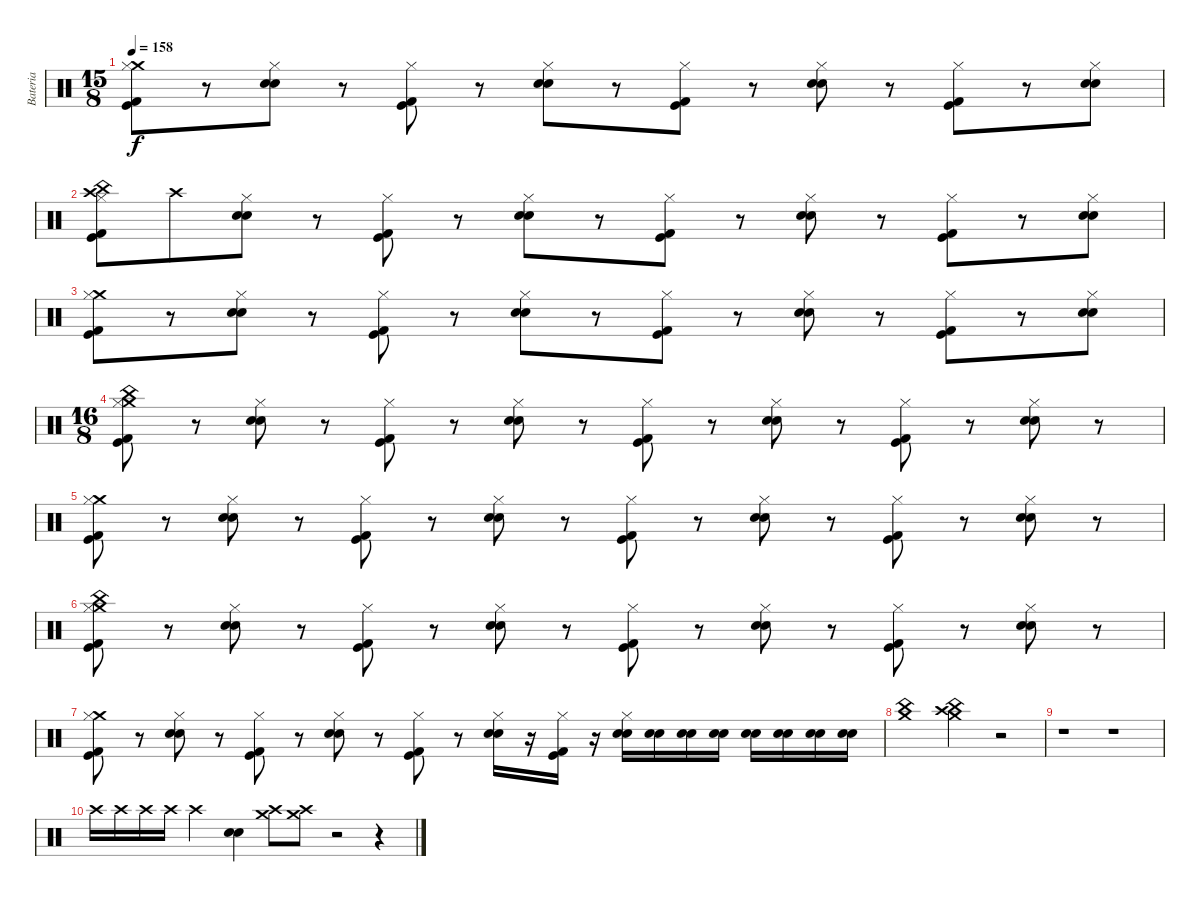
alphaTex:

\track ("Bateria" "Bateria") {instrument percussion}
\staff {score}
\articulation defaults
\ts (15 8)
\tempo 158
\clef neutral
\ks c
("Crash medium (hit)" "Hi-Hat (closed)" "Kick (hit) 2" "Kick (hit)").8{dy f} r.8 ("Hi-Hat (closed)" "Electric Snare (hit)" "Snare (hit) 2").8 r.8 ("Hi-Hat (closed)" "Kick (hit) 2" "Kick (hit)").8 r.8 ("Hi-Hat (closed)" "Electric Snare (hit)" "Snare (hit) 2").8 r.8 ("Hi-Hat (closed)" "Kick (hit) 2" "Kick (hit)").8 r.8 ("Hi-Hat (closed)" "Electric Snare (hit)" "Snare (hit) 2").8 r.8 ("Hi-Hat (closed)" "Kick (hit) 2" "Kick (hit)").8 r.8 ("Hi-Hat (closed)" "Electric Snare (hit)" "Snare (hit) 2").8 |
("Crash high (hit)" "Hi-Hat (closed)" "Kick (hit) 2" "Kick (hit)" "China (hit)").8 "Crash high (hit)".8 ("Hi-Hat (closed)" "Electric Snare (hit)" "Snare (hit) 2").8 r.8 ("Hi-Hat (closed)" "Kick (hit) 2" "Kick (hit)").8 r.8 ("Hi-Hat (closed)" "Electric Snare (hit)" "Snare (hit) 2").8 r.8 ("Hi-Hat (closed)" "Kick (hit) 2" "Kick (hit)").8 r.8 ("Hi-Hat (closed)" "Electric Snare (hit)" "Snare (hit) 2").8 r.8 ("Hi-Hat (closed)" "Kick (hit) 2" "Kick (hit)").8 r.8 ("Hi-Hat (closed)" "Electric Snare (hit)" "Snare (hit) 2").8 |
("Crash medium (hit)" "Hi-Hat (closed)" "Kick (hit) 2" "Kick (hit)").8 r.8 ("Hi-Hat (closed)" "Electric Snare (hit)" "Snare (hit) 2").8 r.8 ("Hi-Hat (closed)" "Kick (hit) 2" "Kick (hit)").8 r.8 ("Hi-Hat (closed)" "Electric Snare (hit)" "Snare (hit) 2").8 r.8 ("Hi-Hat (closed)" "Kick (hit) 2" "Kick (hit)").8 r.8 ("Hi-Hat (closed)" "Electric Snare (hit)" "Snare (hit) 2").8 r.8 ("Hi-Hat (closed)" "Kick (hit) 2" "Kick (hit)").8 r.8 ("Hi-Hat (closed)" "Electric Snare (hit)" "Snare (hit) 2").8 |
\ts (16 8)
("Crash medium (hit)" "Hi-Hat (closed)" "Kick (hit) 2" "Kick (hit)" "China (hit)").8 r.8 ("Hi-Hat (closed)" "Electric Snare (hit)" "Snare (hit) 2").8 r.8 ("Hi-Hat (closed)" "Kick (hit) 2" "Kick (hit)").8 r.8 ("Hi-Hat (closed)" "Electric Snare (hit)" "Snare (hit) 2").8 r.8 ("Hi-Hat (closed)" "Kick (hit) 2" "Kick (hit)").8 r.8 ("Hi-Hat (closed)" "Electric Snare (hit)" "Snare (hit) 2").8 r.8 ("Hi-Hat (closed)" "Kick (hit) 2" "Kick (hit)").8 r.8 ("Hi-Hat (closed)" "Electric Snare (hit)" "Snare (hit) 2").8 r.8 |
("Crash medium (hit)" "Hi-Hat (closed)" "Kick (hit) 2" "Kick (hit)").8 r.8 ("Hi-Hat (closed)" "Electric Snare (hit)" "Snare (hit) 2").8 r.8 ("Hi-Hat (closed)" "Kick (hit) 2" "Kick (hit)").8 r.8 ("Hi-Hat (closed)" "Electric Snare (hit)" "Snare (hit) 2").8 r.8 ("Hi-Hat (closed)" "Kick (hit) 2" "Kick (hit)").8 r.8 ("Hi-Hat (closed)" "Electric Snare (hit)" "Snare (hit) 2").8 r.8 ("Hi-Hat (closed)" "Kick (hit) 2" "Kick (hit)").8 r.8 ("Hi-Hat (closed)" "Electric Snare (hit)" "Snare (hit) 2").8 r.8 |
("Crash medium (hit)" "Hi-Hat (closed)" "Kick (hit) 2" "Kick (hit)" "China (hit)").8 r.8 ("Hi-Hat (closed)" "Electric Snare (hit)" "Snare (hit) 2").8 r.8 ("Hi-Hat (closed)" "Kick (hit) 2" "Kick (hit)").8 r.8 ("Hi-Hat (closed)" "Electric Snare (hit)" "Snare (hit) 2").8 r.8 ("Hi-Hat (closed)" "Kick (hit) 2" "Kick (hit)").8 r.8 ("Hi-Hat (closed)" "Electric Snare (hit)" "Snare (hit) 2").8 r.8 ("Hi-Hat (closed)" "Kick (hit) 2" "Kick (hit)").8 r.8 ("Hi-Hat (closed)" "Electric Snare (hit)" "Snare (hit) 2").8 r.8 |
("Crash medium (hit)" "Hi-Hat (closed)" "Kick (hit) 2" "Kick (hit)").8 r.8 ("Hi-Hat (closed)" "Electric Snare (hit)" "Snare (hit) 2").8 r.8 ("Hi-Hat (closed)" "Kick (hit) 2" "Kick (hit)").8 r.8 ("Hi-Hat (closed)" "Electric Snare (hit)" "Snare (hit) 2").8 r.8 ("Hi-Hat (closed)" "Kick (hit) 2" "Kick (hit)").8 r.8 ("Hi-Hat (closed)" "Electric Snare (hit)" "Snare (hit) 2").16 r.16 ("Hi-Hat (closed)" "Kick (hit) 2" "Kick (hit)").16 r.16 ("Hi-Hat (closed)" "Electric Snare (hit)" "Snare (hit) 2").16 ("Electric Snare (hit)" "Snare (hit) 2").16 ("Electric Snare (hit)" "Snare (hit) 2").16 ("Electric Snare (hit)" "Snare (hit) 2").16 ("Electric Snare (hit)" "Snare (hit) 2").16 ("Electric Snare (hit)" "Snare (hit) 2").16 ("Electric Snare (hit)" "Snare (hit) 2").16 ("Electric Snare (hit)" "Snare (hit) 2").16 |
("Crash medium (hit)" "China (hit)").1 ("Crash high (hit)" "Crash medium (hit)" "China (hit)").2 r.2 |
r.1 r.1 |
"Crash high (hit)".16 "Crash high (hit)".16 "Crash high (hit)".16 "Crash high (hit)".16 "Crash high (hit)".2 ("Electric Snare (hit)" "Snare (hit) 2").4 ("Crash medium (hit)" "Crash high (hit)").8 ("Crash medium (hit)" "Crash high (hit)").8 r.2 r.4
